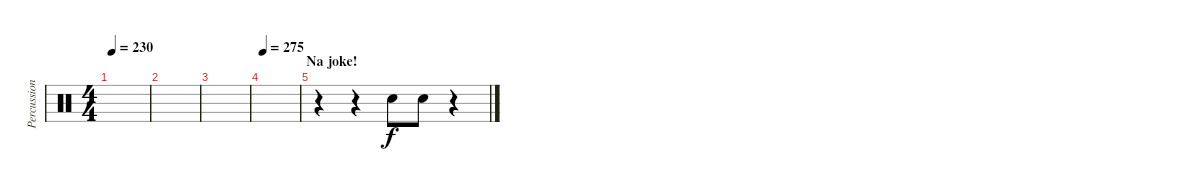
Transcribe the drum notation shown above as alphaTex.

\track ("Percussion" "Percussion") {instrument percussion}
\staff {score}
\articulation defaults
\ts (4 4)
\tempo 230
\clef neutral
\ks c
|
|
|
\section ("" "            Na joke!")
\tempo 275
|
r.4 r.4 "Electric Snare (hit)".8 "Electric Snare (hit)".8 r.4
